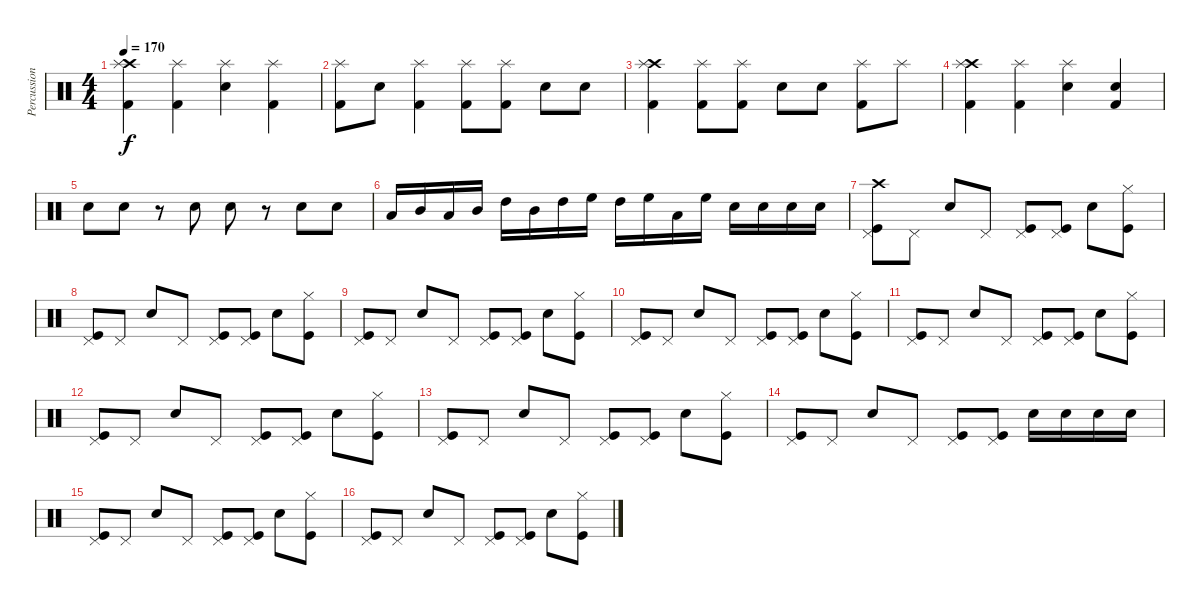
\track ("Percussion" "Percussion") {instrument percussion}
\staff {score}
\articulation defaults
\ts (4 4)
\tempo 170
\clef neutral
\ks c
("Crash high (hit)" "Splash (hit)" "Kick (hit) 2").4{dy f} ("Splash (hit)" "Kick (hit) 2").4 ("Splash (hit)" "Snare (hit) 2").4 ("Splash (hit)" "Kick (hit) 2").4 |
("Splash (hit)" "Kick (hit) 2").8 "Snare (hit) 2".8 ("Splash (hit)" "Kick (hit) 2").4 ("Splash (hit)" "Kick (hit) 2").8 ("Splash (hit)" "Kick (hit) 2").8 "Snare (hit) 2".8 "Snare (hit) 2".8 |
("Crash high (hit)" "Splash (hit)" "Kick (hit) 2").4 ("Splash (hit)" "Kick (hit) 2").8 ("Splash (hit)" "Kick (hit) 2").8 "Snare (hit) 2".8 "Snare (hit) 2".8 ("Splash (hit)" "Kick (hit) 2").8 "Splash (hit)".8 |
("Crash high (hit)" "Splash (hit)" "Kick (hit) 2").4 ("Splash (hit)" "Kick (hit) 2").4 ("Splash (hit)" "Snare (hit) 2").4 ("Snare (hit) 2" "Kick (hit) 2").4 |
"Snare (hit) 2".8 "Snare (hit) 2".8 r.8 "Snare (hit) 2".8 "Snare (hit) 2".8 r.8 "Snare (hit) 2".8 "Snare (hit) 2".8 |
"Low Tom (hit)".16 "Mid Tom (hit)".16 "Low Tom (hit)".16 "Mid Tom (hit)".16 "High Tom (hit)".16 "Mid Tom (hit)".16 "High Tom (hit)".16 "High Floor Tom (hit)".16 "High Tom (hit)".16 "High Floor Tom (hit)".16 "Low Floor Tom (hit)".16 "High Floor Tom (hit)".16 "Snare (hit) 2".16 "Snare (hit) 2".16 "Snare (hit) 2".16 "Snare (hit) 2".16 |
("Crash high (hit)" "Pedal Hi-Hat (hit)" "Kick (hit)").8 "Pedal Hi-Hat (hit)".8 "Snare (hit) 2".8 "Pedal Hi-Hat (hit)".8 ("Pedal Hi-Hat (hit)" "Kick (hit)").8 ("Pedal Hi-Hat (hit)" "Kick (hit)").8 "Snare (hit) 2".8 ("Hi-Hat (closed)" "Kick (hit)").8 |
("Pedal Hi-Hat (hit)" "Kick (hit)").8 "Pedal Hi-Hat (hit)".8 "Snare (hit) 2".8 "Pedal Hi-Hat (hit)".8 ("Pedal Hi-Hat (hit)" "Kick (hit)").8 ("Pedal Hi-Hat (hit)" "Kick (hit)").8 "Snare (hit) 2".8 ("Hi-Hat (closed)" "Kick (hit)").8 |
("Pedal Hi-Hat (hit)" "Kick (hit)").8 "Pedal Hi-Hat (hit)".8 "Snare (hit) 2".8 "Pedal Hi-Hat (hit)".8 ("Pedal Hi-Hat (hit)" "Kick (hit)").8 ("Pedal Hi-Hat (hit)" "Kick (hit)").8 "Snare (hit) 2".8 ("Hi-Hat (closed)" "Kick (hit)").8 |
("Pedal Hi-Hat (hit)" "Kick (hit)").8 "Pedal Hi-Hat (hit)".8 "Snare (hit) 2".8 "Pedal Hi-Hat (hit)".8 ("Pedal Hi-Hat (hit)" "Kick (hit)").8 ("Pedal Hi-Hat (hit)" "Kick (hit)").8 "Snare (hit) 2".8 ("Hi-Hat (closed)" "Kick (hit)").8 |
("Pedal Hi-Hat (hit)" "Kick (hit)").8 "Pedal Hi-Hat (hit)".8 "Snare (hit) 2".8 "Pedal Hi-Hat (hit)".8 ("Pedal Hi-Hat (hit)" "Kick (hit)").8 ("Pedal Hi-Hat (hit)" "Kick (hit)").8 "Snare (hit) 2".8 ("Hi-Hat (closed)" "Kick (hit)").8 |
("Pedal Hi-Hat (hit)" "Kick (hit)").8 "Pedal Hi-Hat (hit)".8 "Snare (hit) 2".8 "Pedal Hi-Hat (hit)".8 ("Pedal Hi-Hat (hit)" "Kick (hit)").8 ("Pedal Hi-Hat (hit)" "Kick (hit)").8 "Snare (hit) 2".8 ("Hi-Hat (closed)" "Kick (hit)").8 |
("Pedal Hi-Hat (hit)" "Kick (hit)").8 "Pedal Hi-Hat (hit)".8 "Snare (hit) 2".8 "Pedal Hi-Hat (hit)".8 ("Pedal Hi-Hat (hit)" "Kick (hit)").8 ("Pedal Hi-Hat (hit)" "Kick (hit)").8 "Snare (hit) 2".8 ("Hi-Hat (closed)" "Kick (hit)").8 |
("Pedal Hi-Hat (hit)" "Kick (hit)").8 "Pedal Hi-Hat (hit)".8 "Snare (hit) 2".8 "Pedal Hi-Hat (hit)".8 ("Pedal Hi-Hat (hit)" "Kick (hit)").8 ("Pedal Hi-Hat (hit)" "Kick (hit)").8 "Snare (hit) 2".16 "Snare (hit) 2".16 "Snare (hit) 2".16 "Snare (hit) 2".16 |
("Pedal Hi-Hat (hit)" "Kick (hit)").8 "Pedal Hi-Hat (hit)".8 "Snare (hit) 2".8 "Pedal Hi-Hat (hit)".8 ("Pedal Hi-Hat (hit)" "Kick (hit)").8 ("Pedal Hi-Hat (hit)" "Kick (hit)").8 "Snare (hit) 2".8 ("Hi-Hat (closed)" "Kick (hit)").8 |
("Pedal Hi-Hat (hit)" "Kick (hit)").8 "Pedal Hi-Hat (hit)".8 "Snare (hit) 2".8 "Pedal Hi-Hat (hit)".8 ("Pedal Hi-Hat (hit)" "Kick (hit)").8 ("Pedal Hi-Hat (hit)" "Kick (hit)").8 "Snare (hit) 2".8 ("Hi-Hat (closed)" "Kick (hit)").8
